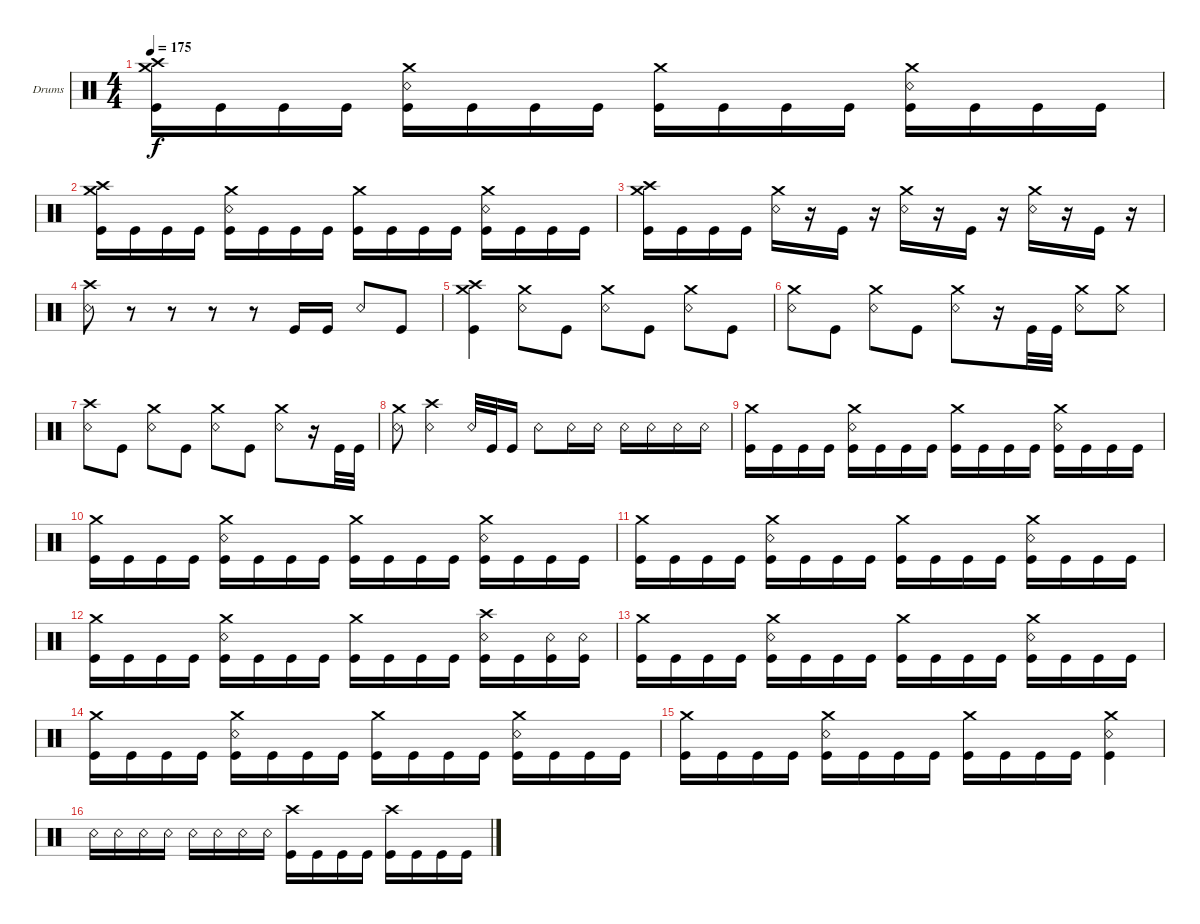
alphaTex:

\bracketExtendMode groupsimilarinstruments
\firstSystemTrackNameOrientation horizontal
\otherSystemsTrackNameOrientation horizontal
\track ("Drumkit" "Drums") {instrument percussion}
\staff {score}
\articulation defaults
\ts (4 4)
\tempo 175
\clef neutral
\ks c
("Crash high (hit)" "Crash medium (hit)" "Kick (hit)").16{dy f} "Kick (hit)".16 "Kick (hit)".16 "Kick (hit)".16 ("Crash medium (hit)" "Snare (rim shot)" "Kick (hit)").16 "Kick (hit)".16 "Kick (hit)".16 "Kick (hit)".16 ("Crash medium (hit)" "Kick (hit)").16 "Kick (hit)".16 "Kick (hit)".16 "Kick (hit)".16 ("Crash medium (hit)" "Snare (rim shot)" "Kick (hit)").16 "Kick (hit)".16 "Kick (hit)".16 "Kick (hit)".16 |
("Crash high (hit)" "Crash medium (hit)" "Kick (hit)").16 "Kick (hit)".16 "Kick (hit)".16 "Kick (hit)".16 ("Crash medium (hit)" "Snare (rim shot)" "Kick (hit)").16 "Kick (hit)".16 "Kick (hit)".16 "Kick (hit)".16 ("Crash medium (hit)" "Kick (hit)").16 "Kick (hit)".16 "Kick (hit)".16 "Kick (hit)".16 ("Crash medium (hit)" "Snare (rim shot)" "Kick (hit)").16 "Kick (hit)".16 "Kick (hit)".16 "Kick (hit)".16 |
("Crash high (hit)" "Crash medium (hit)" "Kick (hit)").16 "Kick (hit)".16 "Kick (hit)".16 "Kick (hit)".16 ("Crash medium (hit)" "Snare (rim shot)").16 r.16 "Kick (hit)".16 r.16 ("Crash medium (hit)" "Snare (rim shot)").16 r.16 "Kick (hit)".16 r.16 ("Crash medium (hit)" "Snare (rim shot)").16 r.16 "Kick (hit)".16 r.16 |
("Crash high (hit)" "Snare (rim shot)").8 r.8 r.8 r.8 r.8 "Kick (hit)".16 "Kick (hit)".16 "Snare (rim shot)".8 "Kick (hit)".8 |
("Crash high (hit)" "Crash medium (hit)" "Kick (hit)").4 ("Crash medium (hit)" "Snare (rim shot)").8 "Kick (hit)".8 ("Crash medium (hit)" "Snare (rim shot)").8 "Kick (hit)".8 ("Crash medium (hit)" "Snare (rim shot)").8 "Kick (hit)".8 |
("Crash medium (hit)" "Snare (rim shot)").8 "Kick (hit)".8 ("Crash medium (hit)" "Snare (rim shot)").8 "Kick (hit)".8 ("Crash medium (hit)" "Snare (rim shot)").8 r.16 "Kick (hit)".32 "Kick (hit)".32 ("Crash medium (hit)" "Snare (rim shot)").8 ("Crash medium (hit)" "Snare (rim shot)").8 |
("Crash high (hit)" "Snare (rim shot)").8 "Kick (hit)".8 ("Crash medium (hit)" "Snare (rim shot)").8 "Kick (hit)".8 ("Crash medium (hit)" "Snare (rim shot)").8 "Kick (hit)".8 ("Crash medium (hit)" "Snare (rim shot)").8 r.16 "Kick (hit)".32 "Kick (hit)".32 |
("Crash medium (hit)" "Snare (rim shot)").8 ("Crash high (hit)" "Snare (rim shot)").4 "Snare (rim shot)".32 "Kick (hit)".32 "Kick (hit)".16 "Snare (rim shot)".8 "Snare (rim shot)".16 "Snare (rim shot)".16 "Snare (rim shot)".16 "Snare (rim shot)".16 "Snare (rim shot)".16 "Snare (rim shot)".16 |
("Crash medium (hit)" "Kick (hit)").16 "Kick (hit)".16 "Kick (hit)".16 "Kick (hit)".16 ("Crash medium (hit)" "Snare (rim shot)" "Kick (hit)").16 "Kick (hit)".16 "Kick (hit)".16 "Kick (hit)".16 ("Crash medium (hit)" "Kick (hit)").16 "Kick (hit)".16 "Kick (hit)".16 "Kick (hit)".16 ("Crash medium (hit)" "Snare (rim shot)" "Kick (hit)").16 "Kick (hit)".16 "Kick (hit)".16 "Kick (hit)".16 |
("Crash medium (hit)" "Kick (hit)").16 "Kick (hit)".16 "Kick (hit)".16 "Kick (hit)".16 ("Crash medium (hit)" "Snare (rim shot)" "Kick (hit)").16 "Kick (hit)".16 "Kick (hit)".16 "Kick (hit)".16 ("Crash medium (hit)" "Kick (hit)").16 "Kick (hit)".16 "Kick (hit)".16 "Kick (hit)".16 ("Crash medium (hit)" "Snare (rim shot)" "Kick (hit)").16 "Kick (hit)".16 "Kick (hit)".16 "Kick (hit)".16 |
("Crash medium (hit)" "Kick (hit)").16 "Kick (hit)".16 "Kick (hit)".16 "Kick (hit)".16 ("Crash medium (hit)" "Snare (rim shot)" "Kick (hit)").16 "Kick (hit)".16 "Kick (hit)".16 "Kick (hit)".16 ("Crash medium (hit)" "Kick (hit)").16 "Kick (hit)".16 "Kick (hit)".16 "Kick (hit)".16 ("Crash medium (hit)" "Snare (rim shot)" "Kick (hit)").16 "Kick (hit)".16 "Kick (hit)".16 "Kick (hit)".16 |
("Crash medium (hit)" "Kick (hit)").16 "Kick (hit)".16 "Kick (hit)".16 "Kick (hit)".16 ("Crash medium (hit)" "Snare (rim shot)" "Kick (hit)").16 "Kick (hit)".16 "Kick (hit)".16 "Kick (hit)".16 ("Crash medium (hit)" "Kick (hit)").16 "Kick (hit)".16 "Kick (hit)".16 "Kick (hit)".16 ("Crash high (hit)" "Snare (rim shot)" "Kick (hit)").16 "Kick (hit)".16 ("Snare (rim shot)" "Kick (hit)").16 ("Snare (rim shot)" "Kick (hit)").16 |
("Crash medium (hit)" "Kick (hit)").16 "Kick (hit)".16 "Kick (hit)".16 "Kick (hit)".16 ("Crash medium (hit)" "Snare (rim shot)" "Kick (hit)").16 "Kick (hit)".16 "Kick (hit)".16 "Kick (hit)".16 ("Crash medium (hit)" "Kick (hit)").16 "Kick (hit)".16 "Kick (hit)".16 "Kick (hit)".16 ("Crash medium (hit)" "Snare (rim shot)" "Kick (hit)").16 "Kick (hit)".16 "Kick (hit)".16 "Kick (hit)".16 |
("Crash medium (hit)" "Kick (hit)").16 "Kick (hit)".16 "Kick (hit)".16 "Kick (hit)".16 ("Crash medium (hit)" "Snare (rim shot)" "Kick (hit)").16 "Kick (hit)".16 "Kick (hit)".16 "Kick (hit)".16 ("Crash medium (hit)" "Kick (hit)").16 "Kick (hit)".16 "Kick (hit)".16 "Kick (hit)".16 ("Crash medium (hit)" "Snare (rim shot)" "Kick (hit)").16 "Kick (hit)".16 "Kick (hit)".16 "Kick (hit)".16 |
("Crash medium (hit)" "Kick (hit)").16 "Kick (hit)".16 "Kick (hit)".16 "Kick (hit)".16 ("Crash medium (hit)" "Snare (rim shot)" "Kick (hit)").16 "Kick (hit)".16 "Kick (hit)".16 "Kick (hit)".16 ("Crash medium (hit)" "Kick (hit)").16 "Kick (hit)".16 "Kick (hit)".16 "Kick (hit)".16 ("Crash medium (hit)" "Snare (rim shot)" "Kick (hit)").4 |
"Snare (rim shot)".16 "Snare (rim shot)".16 "Snare (rim shot)".16 "Snare (rim shot)".16 "Snare (rim shot)".16 "Snare (rim shot)".16 "Snare (rim shot)".16 "Snare (rim shot)".16 ("Crash high (hit)" "Kick (hit)").16 "Kick (hit)".16 "Kick (hit)".16 "Kick (hit)".16 ("Crash high (hit)" "Kick (hit)").16 "Kick (hit)".16 "Kick (hit)".16 "Kick (hit)".16
